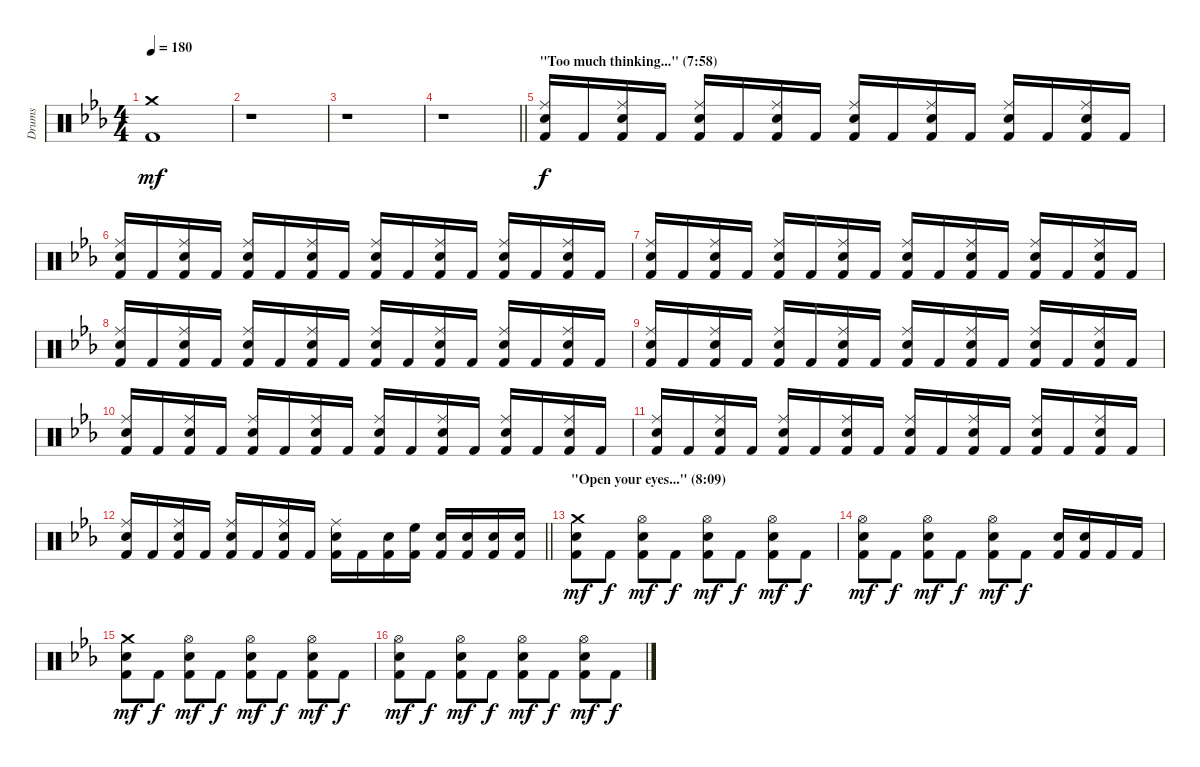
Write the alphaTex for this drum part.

\track ("Drums" "Drums") {instrument percussion}
\staff {score}
\articulation defaults
\ts (4 4)
\tempo 180
\clef neutral
\ks eb
("Crash medium (hit)" "Kick (hit) 2").1{dy mf} |
r.1 |
r.1 |
\barLineRight lightlight
r.1 |
\section ("" "\"Too much thinking...\" (7:58)")
("Ride (middle)" "Electric Snare (hit)" "Kick (hit) 2").16{dy f} "Kick (hit) 2".16 ("Ride (middle)" "Electric Snare (hit)" "Kick (hit) 2").16 "Kick (hit) 2".16 ("Ride (middle)" "Electric Snare (hit)" "Kick (hit) 2").16 "Kick (hit) 2".16 ("Ride (middle)" "Electric Snare (hit)" "Kick (hit) 2").16 "Kick (hit) 2".16 ("Ride (middle)" "Electric Snare (hit)" "Kick (hit) 2").16 "Kick (hit) 2".16 ("Ride (middle)" "Electric Snare (hit)" "Kick (hit) 2").16 "Kick (hit) 2".16 ("Ride (middle)" "Electric Snare (hit)" "Kick (hit) 2").16 "Kick (hit) 2".16 ("Ride (middle)" "Electric Snare (hit)" "Kick (hit) 2").16 "Kick (hit) 2".16 |
("Ride (middle)" "Electric Snare (hit)" "Kick (hit) 2").16 "Kick (hit) 2".16 ("Ride (middle)" "Electric Snare (hit)" "Kick (hit) 2").16 "Kick (hit) 2".16 ("Ride (middle)" "Electric Snare (hit)" "Kick (hit) 2").16 "Kick (hit) 2".16 ("Ride (middle)" "Electric Snare (hit)" "Kick (hit) 2").16 "Kick (hit) 2".16 ("Ride (middle)" "Electric Snare (hit)" "Kick (hit) 2").16 "Kick (hit) 2".16 ("Ride (middle)" "Electric Snare (hit)" "Kick (hit) 2").16 "Kick (hit) 2".16 ("Ride (middle)" "Electric Snare (hit)" "Kick (hit) 2").16 "Kick (hit) 2".16 ("Ride (middle)" "Electric Snare (hit)" "Kick (hit) 2").16 "Kick (hit) 2".16 |
("Ride (middle)" "Electric Snare (hit)" "Kick (hit) 2").16 "Kick (hit) 2".16 ("Ride (middle)" "Electric Snare (hit)" "Kick (hit) 2").16 "Kick (hit) 2".16 ("Ride (middle)" "Electric Snare (hit)" "Kick (hit) 2").16 "Kick (hit) 2".16 ("Ride (middle)" "Electric Snare (hit)" "Kick (hit) 2").16 "Kick (hit) 2".16 ("Ride (middle)" "Electric Snare (hit)" "Kick (hit) 2").16 "Kick (hit) 2".16 ("Ride (middle)" "Electric Snare (hit)" "Kick (hit) 2").16 "Kick (hit) 2".16 ("Ride (middle)" "Electric Snare (hit)" "Kick (hit) 2").16 "Kick (hit) 2".16 ("Ride (middle)" "Electric Snare (hit)" "Kick (hit) 2").16 "Kick (hit) 2".16 |
("Ride (middle)" "Electric Snare (hit)" "Kick (hit) 2").16 "Kick (hit) 2".16 ("Ride (middle)" "Electric Snare (hit)" "Kick (hit) 2").16 "Kick (hit) 2".16 ("Ride (middle)" "Electric Snare (hit)" "Kick (hit) 2").16 "Kick (hit) 2".16 ("Ride (middle)" "Electric Snare (hit)" "Kick (hit) 2").16 "Kick (hit) 2".16 ("Ride (middle)" "Electric Snare (hit)" "Kick (hit) 2").16 "Kick (hit) 2".16 ("Ride (middle)" "Electric Snare (hit)" "Kick (hit) 2").16 "Kick (hit) 2".16 ("Ride (middle)" "Electric Snare (hit)" "Kick (hit) 2").16 "Kick (hit) 2".16 ("Ride (middle)" "Electric Snare (hit)" "Kick (hit) 2").16 "Kick (hit) 2".16 |
("Ride (middle)" "Electric Snare (hit)" "Kick (hit) 2").16 "Kick (hit) 2".16 ("Ride (middle)" "Electric Snare (hit)" "Kick (hit) 2").16 "Kick (hit) 2".16 ("Ride (middle)" "Electric Snare (hit)" "Kick (hit) 2").16 "Kick (hit) 2".16 ("Ride (middle)" "Electric Snare (hit)" "Kick (hit) 2").16 "Kick (hit) 2".16 ("Ride (middle)" "Electric Snare (hit)" "Kick (hit) 2").16 "Kick (hit) 2".16 ("Ride (middle)" "Electric Snare (hit)" "Kick (hit) 2").16 "Kick (hit) 2".16 ("Ride (middle)" "Electric Snare (hit)" "Kick (hit) 2").16 "Kick (hit) 2".16 ("Ride (middle)" "Electric Snare (hit)" "Kick (hit) 2").16 "Kick (hit) 2".16 |
("Ride (middle)" "Electric Snare (hit)" "Kick (hit) 2").16 "Kick (hit) 2".16 ("Ride (middle)" "Electric Snare (hit)" "Kick (hit) 2").16 "Kick (hit) 2".16 ("Ride (middle)" "Electric Snare (hit)" "Kick (hit) 2").16 "Kick (hit) 2".16 ("Ride (middle)" "Electric Snare (hit)" "Kick (hit) 2").16 "Kick (hit) 2".16 ("Ride (middle)" "Electric Snare (hit)" "Kick (hit) 2").16 "Kick (hit) 2".16 ("Ride (middle)" "Electric Snare (hit)" "Kick (hit) 2").16 "Kick (hit) 2".16 ("Ride (middle)" "Electric Snare (hit)" "Kick (hit) 2").16 "Kick (hit) 2".16 ("Ride (middle)" "Electric Snare (hit)" "Kick (hit) 2").16 "Kick (hit) 2".16 |
("Ride (middle)" "Electric Snare (hit)" "Kick (hit) 2").16 "Kick (hit) 2".16 ("Ride (middle)" "Electric Snare (hit)" "Kick (hit) 2").16 "Kick (hit) 2".16 ("Ride (middle)" "Electric Snare (hit)" "Kick (hit) 2").16 "Kick (hit) 2".16 ("Ride (middle)" "Electric Snare (hit)" "Kick (hit) 2").16 "Kick (hit) 2".16 ("Ride (middle)" "Electric Snare (hit)" "Kick (hit) 2").16 "Kick (hit) 2".16 ("Ride (middle)" "Electric Snare (hit)" "Kick (hit) 2").16 "Kick (hit) 2".16 ("Ride (middle)" "Electric Snare (hit)" "Kick (hit) 2").16 "Kick (hit) 2".16 ("Ride (middle)" "Electric Snare (hit)" "Kick (hit) 2").16 "Kick (hit) 2".16 |
\barLineRight lightlight
("Ride (middle)" "Electric Snare (hit)" "Kick (hit) 2").16 "Kick (hit) 2".16 ("Ride (middle)" "Electric Snare (hit)" "Kick (hit) 2").16 "Kick (hit) 2".16 ("Ride (middle)" "Electric Snare (hit)" "Kick (hit) 2").16 "Kick (hit) 2".16 ("Ride (middle)" "Electric Snare (hit)" "Kick (hit) 2").16 "Kick (hit) 2".16 ("Ride (middle)" "Electric Snare (hit)" "Kick (hit) 2").16 "Kick (hit) 2".16 ("Electric Snare (hit)" "Kick (hit) 2").16 ("High Floor Tom (hit)" "Kick (hit) 2").16 ("Electric Snare (hit)" "Kick (hit) 2").16 ("Electric Snare (hit)" "Kick (hit) 2").16 ("Electric Snare (hit)" "Kick (hit) 2").16 ("Electric Snare (hit)" "Kick (hit) 2").16 |
\section ("" "\"Open your eyes...\" (8:09)")
("Crash medium (hit)" "Electric Snare (hit)" "Kick (hit) 2").8{dy mf} "Kick (hit) 2".8{dy f} ("Hi-Hat (open)" "Electric Snare (hit)" "Kick (hit) 2").8{dy mf} "Kick (hit) 2".8{dy f} ("Hi-Hat (open)" "Electric Snare (hit)" "Kick (hit) 2").8{dy mf} "Kick (hit) 2".8{dy f} ("Hi-Hat (open)" "Electric Snare (hit)" "Kick (hit) 2").8{dy mf} "Kick (hit) 2".8{dy f} |
("Hi-Hat (open)" "Electric Snare (hit)" "Kick (hit) 2").8{dy mf} "Kick (hit) 2".8{dy f} ("Hi-Hat (open)" "Electric Snare (hit)" "Kick (hit) 2").8{dy mf} "Kick (hit) 2".8{dy f} ("Hi-Hat (open)" "Electric Snare (hit)" "Kick (hit) 2").8{dy mf} "Kick (hit) 2".8{dy f} ("Electric Snare (hit)" "Kick (hit) 2").16 ("Electric Snare (hit)" "Kick (hit) 2").16 "Kick (hit) 2".16 "Kick (hit) 2".16 |
("Crash medium (hit)" "Electric Snare (hit)" "Kick (hit) 2").8{dy mf} "Kick (hit) 2".8{dy f} ("Hi-Hat (open)" "Electric Snare (hit)" "Kick (hit) 2").8{dy mf} "Kick (hit) 2".8{dy f} ("Hi-Hat (open)" "Electric Snare (hit)" "Kick (hit) 2").8{dy mf} "Kick (hit) 2".8{dy f} ("Hi-Hat (open)" "Electric Snare (hit)" "Kick (hit) 2").8{dy mf} "Kick (hit) 2".8{dy f} |
("Hi-Hat (open)" "Electric Snare (hit)" "Kick (hit) 2").8{dy mf} "Kick (hit) 2".8{dy f} ("Hi-Hat (open)" "Electric Snare (hit)" "Kick (hit) 2").8{dy mf} "Kick (hit) 2".8{dy f} ("Hi-Hat (open)" "Electric Snare (hit)" "Kick (hit) 2").8{dy mf} "Kick (hit) 2".8{dy f} ("Hi-Hat (open)" "Electric Snare (hit)" "Kick (hit) 2").8{dy mf} "Kick (hit) 2".8{dy f}
